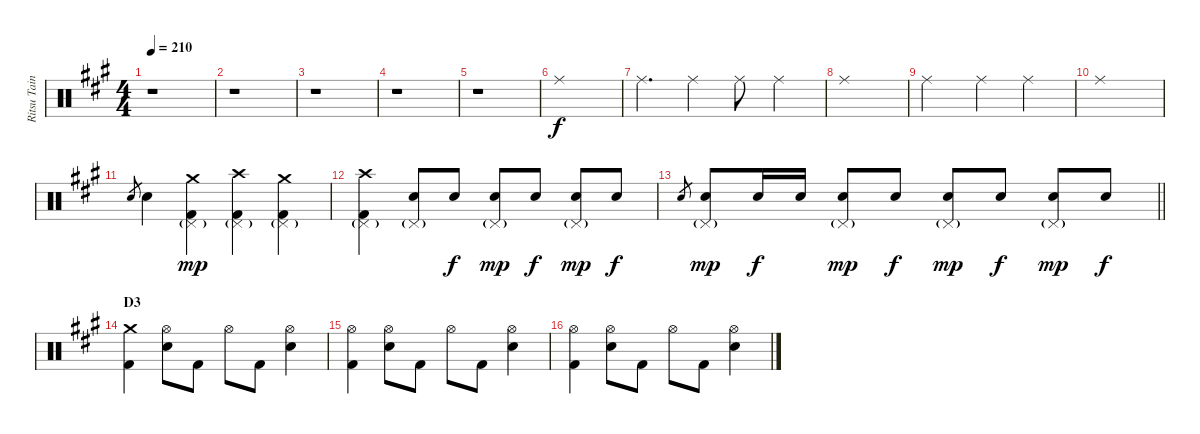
\track ("Ritsu Tainaka" "Ritsu Tain") {instrument percussion}
\staff {score}
\articulation defaults
\ts (4 4)
\tempo 210
\clef neutral
\ks a
r.1{dy f} |
r.1 |
r.1 |
r.1 |
r.1 |
"Ride (middle)".1 |
"Ride (middle)".4{d} "Ride (middle)".4 "Ride (middle)".8 "Ride (middle)".4 |
"Ride (middle)".1 |
"Ride (middle)".2 "Ride (middle)".4 "Ride (middle)".4 |
"Ride (middle)".1 |
"Electric Snare (hit)".8{gr} "Electric Snare (hit)".4 ("Crash medium (hit)" "Pedal Hi-Hat (hit)"{g} "Kick (hit) 2").4{dy mp} ("Crash high (hit)" "Pedal Hi-Hat (hit)"{g} "Kick (hit) 2").4 ("Crash medium (hit)" "Pedal Hi-Hat (hit)"{g} "Kick (hit) 2").4 |
("Crash high (hit)" "Pedal Hi-Hat (hit)"{g} "Kick (hit) 2").4 ("Pedal Hi-Hat (hit)"{g} "Electric Snare (hit)").8 "Electric Snare (hit)".8{dy f} ("Pedal Hi-Hat (hit)"{g} "Electric Snare (hit)").8{dy mp} "Electric Snare (hit)".8{dy f} ("Pedal Hi-Hat (hit)"{g} "Electric Snare (hit)").8{dy mp} "Electric Snare (hit)".8{dy f} |
\barLineRight lightlight "Electric Snare (hit)".8{gr}
("Pedal Hi-Hat (hit)"{g} "Electric Snare (hit)").8{dy mp} "Electric Snare (hit)".16{dy f} "Electric Snare (hit)".16 ("Pedal Hi-Hat (hit)"{g} "Electric Snare (hit)").8{dy mp} "Electric Snare (hit)".8{dy f} ("Pedal Hi-Hat (hit)"{g} "Electric Snare (hit)").8{dy mp} "Electric Snare (hit)".8{dy f} ("Pedal Hi-Hat (hit)"{g} "Electric Snare (hit)").8{dy mp} "Electric Snare (hit)".8{dy f} |
\section ("" "D3")
("Crash medium (hit)" "Kick (hit) 2").4 ("Hi-Hat (open)" "Electric Snare (hit)").8 "Kick (hit) 2".8 "Hi-Hat (open)".8 "Kick (hit) 2".8 ("Hi-Hat (open)" "Electric Snare (hit)").4 |
("Hi-Hat (open)" "Kick (hit) 2").4 ("Hi-Hat (open)" "Electric Snare (hit)").8 "Kick (hit) 2".8 "Hi-Hat (open)".8 "Kick (hit) 2".8 ("Hi-Hat (open)" "Electric Snare (hit)").4 |
("Hi-Hat (open)" "Kick (hit) 2").4 ("Hi-Hat (open)" "Electric Snare (hit)").8 "Kick (hit) 2".8 "Hi-Hat (open)".8 "Kick (hit) 2".8 ("Hi-Hat (open)" "Electric Snare (hit)").4
